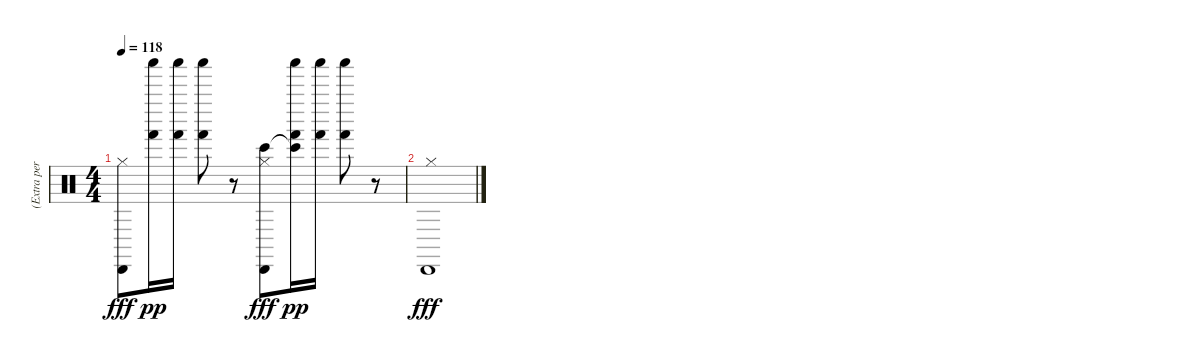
\track ("(Extra percussion)Eddie Fisher" "(Extra per") {instrument percussion}
\staff {score}
\articulation defaults
\ts (4 4)
\tempo 118
\clef neutral
\ks c
("Cabasa (hit)" "Hi-Hat (closed)").8{dy fff} ("Shaker (hit)" "Hand (hit)").16{dy pp} ("Shaker (hit)" "Hand (hit)").16 ("Shaker (hit)" "Hand (hit)").8 r.8 ("Cabasa (hit)" "Hi-Hat (closed)" "Bongo High (hit)").8{dy fff} ("Shaker (hit)" "Hand (hit)" "Bongo High (hit)"{t}).16{dy pp} ("Shaker (hit)" "Hand (hit)").16 ("Shaker (hit)" "Hand (hit)").8 r.8 |
("Cabasa (hit)" "Hi-Hat (closed)").1{dy fff}
